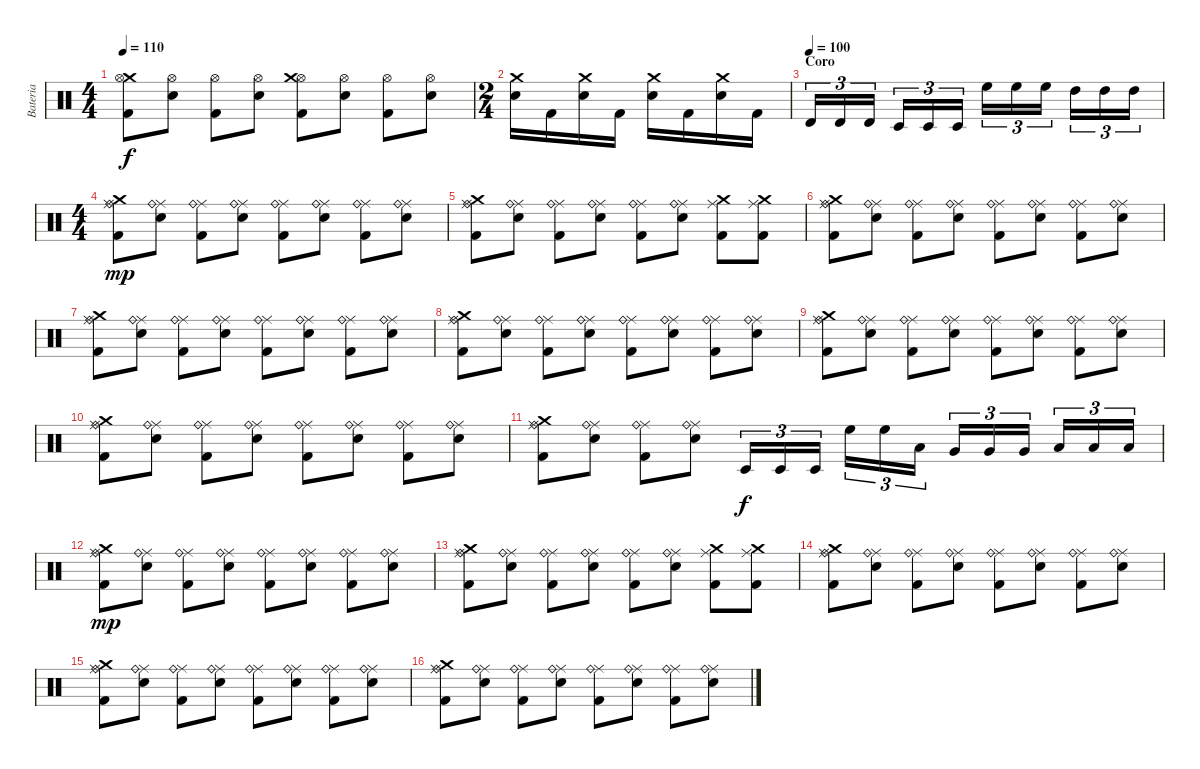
\track ("Bateria" "Bateria") {instrument percussion}
\staff {score}
\articulation defaults
\ts (4 4)
\section ("" "")
\tempo 110
\clef neutral
\ks c
("Crash medium (hit)" "Kick (hit) 2" "Hi-Hat (open)").8{dy f} ("Snare (hit) 2" "Hi-Hat (open)").8 ("Hi-Hat (open)" "Kick (hit) 2").8 ("Hi-Hat (open)" "Snare (hit) 2").8 ("Hi-Hat (open)" "Kick (hit) 2" "Crash medium (hit)").8 ("Hi-Hat (open)" "Snare (hit) 2").8 ("Hi-Hat (open)" "Kick (hit) 2").8 ("Hi-Hat (open)" "Snare (hit) 2").8 |
\ts (2 4)
("Snare (hit) 2" "Crash medium (hit)").16 "Kick (hit) 2".16 ("Snare (hit) 2" "Crash medium (hit)").16 "Kick (hit) 2".16 ("Snare (hit) 2" "Crash medium (hit)").16 "Kick (hit) 2".16 ("Snare (hit) 2" "Crash medium (hit)").16 "Kick (hit) 2".16 |
\section ("" "Coro")
\tempo (100)
"Timbale high (hit)".16{tu (3 2)} "Timbale high (hit)".16{tu (3 2)} "Timbale high (hit)".16{tu (3 2)} "Timbale low (hit)".16{tu (3 2)} "Timbale low (hit)".16{tu (3 2)} "Timbale low (hit)".16{tu (3 2)} "High Floor Tom (hit)".16{tu (3 2)} "High Floor Tom (hit)".16{tu (3 2)} "High Floor Tom (hit)".16{tu (3 2)} "High Tom (hit)".16{tu (3 2)} "High Tom (hit)".16{tu (3 2)} "High Tom (hit)".16{tu (3 2)} |
\ts (4 4)
("Crash medium (hit)" "Ride (middle)" "Kick (hit) 2" "Ride (bell)").8{dy mp} ("Ride (middle)" "Snare (hit) 2" "Ride (bell)").8 ("Ride (middle)" "Kick (hit) 2" "Ride (bell)").8 ("Ride (middle)" "Snare (hit) 2" "Ride (bell)").8 ("Ride (middle)" "Kick (hit) 2" "Ride (bell)").8 ("Ride (middle)" "Snare (hit) 2" "Ride (bell)").8 ("Ride (middle)" "Kick (hit) 2" "Ride (bell)").8 ("Ride (middle)" "Snare (hit) 2" "Ride (bell)").8 |
("Crash medium (hit)" "Ride (middle)" "Kick (hit) 2" "Ride (bell)").8 ("Ride (middle)" "Snare (hit) 2" "Ride (bell)").8 ("Ride (middle)" "Kick (hit) 2" "Ride (bell)").8 ("Ride (middle)" "Snare (hit) 2" "Ride (bell)").8 ("Ride (middle)" "Kick (hit) 2" "Ride (bell)").8 ("Ride (middle)" "Snare (hit) 2" "Ride (bell)").8 ("Ride (middle)" "Kick (hit) 2" "Crash medium (hit)").8 ("Ride (middle)" "Kick (hit) 2" "Crash medium (hit)").8 |
("Crash medium (hit)" "Ride (middle)" "Kick (hit) 2" "Ride (bell)").8 ("Ride (middle)" "Snare (hit) 2" "Ride (bell)").8 ("Ride (middle)" "Kick (hit) 2" "Ride (bell)").8 ("Ride (middle)" "Snare (hit) 2" "Ride (bell)").8 ("Ride (middle)" "Kick (hit) 2" "Ride (bell)").8 ("Ride (middle)" "Snare (hit) 2" "Ride (bell)").8 ("Ride (middle)" "Kick (hit) 2" "Ride (bell)").8 ("Ride (middle)" "Snare (hit) 2" "Ride (bell)").8 |
("Crash medium (hit)" "Ride (middle)" "Kick (hit) 2" "Ride (bell)").8 ("Ride (middle)" "Snare (hit) 2" "Ride (bell)").8 ("Ride (middle)" "Kick (hit) 2" "Ride (bell)").8 ("Ride (middle)" "Snare (hit) 2" "Ride (bell)").8 ("Ride (middle)" "Kick (hit) 2" "Ride (bell)").8 ("Ride (middle)" "Snare (hit) 2" "Ride (bell)").8 ("Ride (middle)" "Kick (hit) 2" "Ride (bell)").8 ("Ride (middle)" "Snare (hit) 2" "Ride (bell)").8 |
("Crash medium (hit)" "Ride (middle)" "Kick (hit) 2" "Ride (bell)").8 ("Ride (middle)" "Snare (hit) 2" "Ride (bell)").8 ("Ride (middle)" "Kick (hit) 2" "Ride (bell)").8 ("Ride (middle)" "Snare (hit) 2" "Ride (bell)").8 ("Ride (middle)" "Kick (hit) 2" "Ride (bell)").8 ("Ride (middle)" "Snare (hit) 2" "Ride (bell)").8 ("Ride (middle)" "Kick (hit) 2" "Ride (bell)").8 ("Ride (middle)" "Snare (hit) 2" "Ride (bell)").8 |
("Crash medium (hit)" "Ride (middle)" "Kick (hit) 2" "Ride (bell)").8 ("Ride (middle)" "Snare (hit) 2" "Ride (bell)").8 ("Ride (middle)" "Kick (hit) 2" "Ride (bell)").8 ("Ride (middle)" "Snare (hit) 2" "Ride (bell)").8 ("Ride (middle)" "Kick (hit) 2" "Ride (bell)").8 ("Ride (middle)" "Snare (hit) 2" "Ride (bell)").8 ("Ride (middle)" "Kick (hit) 2" "Ride (bell)").8 ("Ride (middle)" "Snare (hit) 2" "Ride (bell)").8 |
("Crash medium (hit)" "Ride (middle)" "Kick (hit) 2" "Ride (bell)").8 ("Ride (middle)" "Snare (hit) 2" "Ride (bell)").8 ("Ride (middle)" "Kick (hit) 2" "Ride (bell)").8 ("Ride (middle)" "Snare (hit) 2" "Ride (bell)").8 ("Ride (middle)" "Kick (hit) 2" "Ride (bell)").8 ("Ride (middle)" "Snare (hit) 2" "Ride (bell)").8 ("Ride (middle)" "Kick (hit) 2" "Ride (bell)").8 ("Ride (middle)" "Snare (hit) 2" "Ride (bell)").8 |
("Crash medium (hit)" "Ride (middle)" "Kick (hit) 2" "Ride (bell)").8 ("Ride (middle)" "Snare (hit) 2" "Ride (bell)").8 ("Ride (middle)" "Kick (hit) 2" "Ride (bell)").8 ("Ride (middle)" "Snare (hit) 2" "Ride (bell)").8 "Timbale low (hit)".16{tu (3 2) dy f} "Timbale low (hit)".16{tu (3 2)} "Timbale low (hit)".16{tu (3 2)} "High Floor Tom (hit)".16{tu (3 2)} "High Floor Tom (hit)".16{tu (3 2)} "Low Tom (hit)".16{tu (3 2)} "Very Low Tom (hit)".16{tu (3 2)} "Very Low Tom (hit)".16{tu (3 2)} "Very Low Tom (hit)".16{tu (3 2)} "Low Floor Tom (hit)".16{tu (3 2)} "Low Floor Tom (hit)".16{tu (3 2)} "Low Floor Tom (hit)".16{tu (3 2)} |
\section ("" "")
("Crash medium (hit)" "Ride (middle)" "Kick (hit) 2" "Ride (bell)").8{dy mp} ("Ride (middle)" "Snare (hit) 2" "Ride (bell)").8 ("Ride (middle)" "Kick (hit) 2" "Ride (bell)").8 ("Ride (middle)" "Snare (hit) 2" "Ride (bell)").8 ("Ride (middle)" "Kick (hit) 2" "Ride (bell)").8 ("Ride (middle)" "Snare (hit) 2" "Ride (bell)").8 ("Ride (middle)" "Kick (hit) 2" "Ride (bell)").8 ("Ride (middle)" "Snare (hit) 2" "Ride (bell)").8 |
("Crash medium (hit)" "Ride (middle)" "Kick (hit) 2" "Ride (bell)").8 ("Ride (middle)" "Snare (hit) 2" "Ride (bell)").8 ("Ride (middle)" "Kick (hit) 2" "Ride (bell)").8 ("Ride (middle)" "Snare (hit) 2" "Ride (bell)").8 ("Ride (middle)" "Kick (hit) 2" "Ride (bell)").8 ("Ride (middle)" "Snare (hit) 2" "Ride (bell)").8 ("Ride (middle)" "Kick (hit) 2" "Crash medium (hit)").8 ("Ride (middle)" "Kick (hit) 2" "Crash medium (hit)").8 |
("Crash medium (hit)" "Ride (middle)" "Kick (hit) 2" "Ride (bell)").8 ("Ride (middle)" "Snare (hit) 2" "Ride (bell)").8 ("Ride (middle)" "Kick (hit) 2" "Ride (bell)").8 ("Ride (middle)" "Snare (hit) 2" "Ride (bell)").8 ("Ride (middle)" "Kick (hit) 2" "Ride (bell)").8 ("Ride (middle)" "Snare (hit) 2" "Ride (bell)").8 ("Ride (middle)" "Kick (hit) 2" "Ride (bell)").8 ("Ride (middle)" "Snare (hit) 2" "Ride (bell)").8 |
("Crash medium (hit)" "Ride (middle)" "Kick (hit) 2" "Ride (bell)").8 ("Ride (middle)" "Snare (hit) 2" "Ride (bell)").8 ("Ride (middle)" "Kick (hit) 2" "Ride (bell)").8 ("Ride (middle)" "Snare (hit) 2" "Ride (bell)").8 ("Ride (middle)" "Kick (hit) 2" "Ride (bell)").8 ("Ride (middle)" "Snare (hit) 2" "Ride (bell)").8 ("Ride (middle)" "Kick (hit) 2" "Ride (bell)").8 ("Ride (middle)" "Snare (hit) 2" "Ride (bell)").8 |
("Crash medium (hit)" "Ride (middle)" "Kick (hit) 2" "Ride (bell)").8 ("Ride (middle)" "Snare (hit) 2" "Ride (bell)").8 ("Ride (middle)" "Kick (hit) 2" "Ride (bell)").8 ("Ride (middle)" "Snare (hit) 2" "Ride (bell)").8 ("Ride (middle)" "Kick (hit) 2" "Ride (bell)").8 ("Ride (middle)" "Snare (hit) 2" "Ride (bell)").8 ("Ride (middle)" "Kick (hit) 2" "Ride (bell)").8 ("Ride (middle)" "Snare (hit) 2" "Ride (bell)").8
